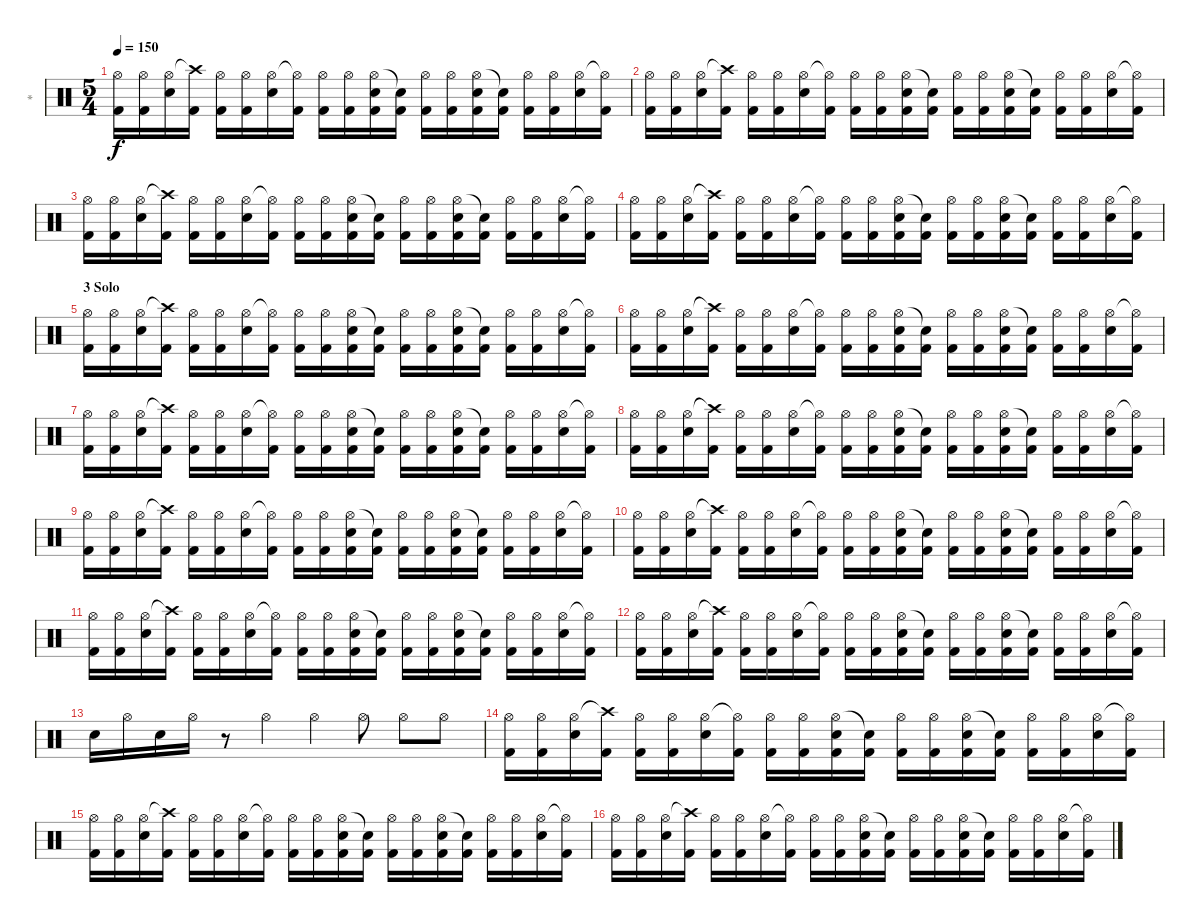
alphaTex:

\track ("*" "*") {instrument percussion}
\staff {score}
\articulation defaults
\ts (5 4)
\tempo 150
\clef neutral
\ks c
("Hi-Hat (open)" "Kick (hit) 2").16{dy f} ("Hi-Hat (open)" "Kick (hit) 2").16 ("Hi-Hat (open)" "Electric Snare (hit)").16 ("Crash high (hit)"{t} "Kick (hit) 2").16 ("Hi-Hat (open)" "Kick (hit) 2").16 ("Hi-Hat (open)" "Kick (hit) 2").16 ("Hi-Hat (open)" "Electric Snare (hit)").16 ("Hi-Hat (open)"{t} "Kick (hit) 2").16 ("Hi-Hat (open)" "Kick (hit) 2").16 ("Hi-Hat (open)" "Kick (hit) 2").16 ("Hi-Hat (open)" "Electric Snare (hit)" "Kick (hit) 2"{x}).16 ("Snare (hit)"{t} "Kick (hit) 2").16 ("Hi-Hat (open)" "Kick (hit) 2").16 ("Hi-Hat (open)" "Kick (hit) 2").16 ("Hi-Hat (open)" "Electric Snare (hit)" "Kick (hit) 2"{x}).16 ("Snare (hit)"{t} "Kick (hit) 2").16 ("Hi-Hat (open)" "Kick (hit) 2").16 ("Hi-Hat (open)" "Kick (hit) 2").16 ("Hi-Hat (open)" "Electric Snare (hit)").16 ("Hi-Hat (open)"{t} "Kick (hit) 2").16 |
("Hi-Hat (open)" "Kick (hit) 2").16 ("Hi-Hat (open)" "Kick (hit) 2").16 ("Hi-Hat (open)" "Electric Snare (hit)").16 ("Crash high (hit)"{t} "Kick (hit) 2").16 ("Hi-Hat (open)" "Kick (hit) 2").16 ("Hi-Hat (open)" "Kick (hit) 2").16 ("Hi-Hat (open)" "Electric Snare (hit)").16 ("Hi-Hat (open)"{t} "Kick (hit) 2").16 ("Hi-Hat (open)" "Kick (hit) 2").16 ("Hi-Hat (open)" "Kick (hit) 2").16 ("Hi-Hat (open)" "Electric Snare (hit)" "Kick (hit) 2"{x}).16 ("Snare (hit)"{t} "Kick (hit) 2").16 ("Hi-Hat (open)" "Kick (hit) 2").16 ("Hi-Hat (open)" "Kick (hit) 2").16 ("Hi-Hat (open)" "Electric Snare (hit)" "Kick (hit) 2"{x}).16 ("Snare (hit)"{t} "Kick (hit) 2").16 ("Hi-Hat (open)" "Kick (hit) 2").16 ("Hi-Hat (open)" "Kick (hit) 2").16 ("Hi-Hat (open)" "Electric Snare (hit)").16 ("Hi-Hat (open)"{t} "Kick (hit) 2").16 |
("Hi-Hat (open)" "Kick (hit) 2").16 ("Hi-Hat (open)" "Kick (hit) 2").16 ("Hi-Hat (open)" "Electric Snare (hit)").16 ("Crash high (hit)"{t} "Kick (hit) 2").16 ("Hi-Hat (open)" "Kick (hit) 2").16 ("Hi-Hat (open)" "Kick (hit) 2").16 ("Hi-Hat (open)" "Electric Snare (hit)").16 ("Hi-Hat (open)"{t} "Kick (hit) 2").16 ("Hi-Hat (open)" "Kick (hit) 2").16 ("Hi-Hat (open)" "Kick (hit) 2").16 ("Hi-Hat (open)" "Electric Snare (hit)" "Kick (hit) 2"{x}).16 ("Snare (hit)"{t} "Kick (hit) 2").16 ("Hi-Hat (open)" "Kick (hit) 2").16 ("Hi-Hat (open)" "Kick (hit) 2").16 ("Hi-Hat (open)" "Electric Snare (hit)" "Kick (hit) 2"{x}).16 ("Snare (hit)"{t} "Kick (hit) 2").16 ("Hi-Hat (open)" "Kick (hit) 2").16 ("Hi-Hat (open)" "Kick (hit) 2").16 ("Hi-Hat (open)" "Electric Snare (hit)").16 ("Hi-Hat (open)"{t} "Kick (hit) 2").16 |
("Hi-Hat (open)" "Kick (hit) 2").16 ("Hi-Hat (open)" "Kick (hit) 2").16 ("Hi-Hat (open)" "Electric Snare (hit)").16 ("Crash high (hit)"{t} "Kick (hit) 2").16 ("Hi-Hat (open)" "Kick (hit) 2").16 ("Hi-Hat (open)" "Kick (hit) 2").16 ("Hi-Hat (open)" "Electric Snare (hit)").16 ("Hi-Hat (open)"{t} "Kick (hit) 2").16 ("Hi-Hat (open)" "Kick (hit) 2").16 ("Hi-Hat (open)" "Kick (hit) 2").16 ("Hi-Hat (open)" "Electric Snare (hit)" "Kick (hit) 2"{x}).16 ("Snare (hit)"{t} "Kick (hit) 2").16 ("Hi-Hat (open)" "Kick (hit) 2").16 ("Hi-Hat (open)" "Kick (hit) 2").16 ("Hi-Hat (open)" "Electric Snare (hit)" "Kick (hit) 2"{x}).16 ("Snare (hit)"{t} "Kick (hit) 2").16 ("Hi-Hat (open)" "Kick (hit) 2").16 ("Hi-Hat (open)" "Kick (hit) 2").16 ("Hi-Hat (open)" "Electric Snare (hit)").16 ("Hi-Hat (open)"{t} "Kick (hit) 2").16 |
\section ("" "3 Solo")
("Hi-Hat (open)" "Kick (hit) 2").16 ("Hi-Hat (open)" "Kick (hit) 2").16 ("Hi-Hat (open)" "Electric Snare (hit)").16 ("Crash high (hit)"{t} "Kick (hit) 2").16 ("Hi-Hat (open)" "Kick (hit) 2").16 ("Hi-Hat (open)" "Kick (hit) 2").16 ("Hi-Hat (open)" "Electric Snare (hit)").16 ("Hi-Hat (open)"{t} "Kick (hit) 2").16 ("Hi-Hat (open)" "Kick (hit) 2").16 ("Hi-Hat (open)" "Kick (hit) 2").16 ("Hi-Hat (open)" "Electric Snare (hit)" "Kick (hit) 2"{x}).16 ("Snare (hit)"{t} "Kick (hit) 2").16 ("Hi-Hat (open)" "Kick (hit) 2").16 ("Hi-Hat (open)" "Kick (hit) 2").16 ("Hi-Hat (open)" "Electric Snare (hit)" "Kick (hit) 2"{x}).16 ("Snare (hit)"{t} "Kick (hit) 2").16 ("Hi-Hat (open)" "Kick (hit) 2").16 ("Hi-Hat (open)" "Kick (hit) 2").16 ("Hi-Hat (open)" "Electric Snare (hit)").16 ("Hi-Hat (open)"{t} "Kick (hit) 2").16 |
("Hi-Hat (open)" "Kick (hit) 2").16 ("Hi-Hat (open)" "Kick (hit) 2").16 ("Hi-Hat (open)" "Electric Snare (hit)").16 ("Crash high (hit)"{t} "Kick (hit) 2").16 ("Hi-Hat (open)" "Kick (hit) 2").16 ("Hi-Hat (open)" "Kick (hit) 2").16 ("Hi-Hat (open)" "Electric Snare (hit)").16 ("Hi-Hat (open)"{t} "Kick (hit) 2").16 ("Hi-Hat (open)" "Kick (hit) 2").16 ("Hi-Hat (open)" "Kick (hit) 2").16 ("Hi-Hat (open)" "Electric Snare (hit)" "Kick (hit) 2"{x}).16 ("Snare (hit)"{t} "Kick (hit) 2").16 ("Hi-Hat (open)" "Kick (hit) 2").16 ("Hi-Hat (open)" "Kick (hit) 2").16 ("Hi-Hat (open)" "Electric Snare (hit)" "Kick (hit) 2"{x}).16 ("Snare (hit)"{t} "Kick (hit) 2").16 ("Hi-Hat (open)" "Kick (hit) 2").16 ("Hi-Hat (open)" "Kick (hit) 2").16 ("Hi-Hat (open)" "Electric Snare (hit)").16 ("Hi-Hat (open)"{t} "Kick (hit) 2").16 |
("Hi-Hat (open)" "Kick (hit) 2").16 ("Hi-Hat (open)" "Kick (hit) 2").16 ("Hi-Hat (open)" "Electric Snare (hit)").16 ("Crash high (hit)"{t} "Kick (hit) 2").16 ("Hi-Hat (open)" "Kick (hit) 2").16 ("Hi-Hat (open)" "Kick (hit) 2").16 ("Hi-Hat (open)" "Electric Snare (hit)").16 ("Hi-Hat (open)"{t} "Kick (hit) 2").16 ("Hi-Hat (open)" "Kick (hit) 2").16 ("Hi-Hat (open)" "Kick (hit) 2").16 ("Hi-Hat (open)" "Electric Snare (hit)" "Kick (hit) 2"{x}).16 ("Snare (hit)"{t} "Kick (hit) 2").16 ("Hi-Hat (open)" "Kick (hit) 2").16 ("Hi-Hat (open)" "Kick (hit) 2").16 ("Hi-Hat (open)" "Electric Snare (hit)" "Kick (hit) 2"{x}).16 ("Snare (hit)"{t} "Kick (hit) 2").16 ("Hi-Hat (open)" "Kick (hit) 2").16 ("Hi-Hat (open)" "Kick (hit) 2").16 ("Hi-Hat (open)" "Electric Snare (hit)").16 ("Hi-Hat (open)"{t} "Kick (hit) 2").16 |
("Hi-Hat (open)" "Kick (hit) 2").16 ("Hi-Hat (open)" "Kick (hit) 2").16 ("Hi-Hat (open)" "Electric Snare (hit)").16 ("Crash high (hit)"{t} "Kick (hit) 2").16 ("Hi-Hat (open)" "Kick (hit) 2").16 ("Hi-Hat (open)" "Kick (hit) 2").16 ("Hi-Hat (open)" "Electric Snare (hit)").16 ("Hi-Hat (open)"{t} "Kick (hit) 2").16 ("Hi-Hat (open)" "Kick (hit) 2").16 ("Hi-Hat (open)" "Kick (hit) 2").16 ("Hi-Hat (open)" "Electric Snare (hit)" "Kick (hit) 2"{x}).16 ("Snare (hit)"{t} "Kick (hit) 2").16 ("Hi-Hat (open)" "Kick (hit) 2").16 ("Hi-Hat (open)" "Kick (hit) 2").16 ("Hi-Hat (open)" "Electric Snare (hit)" "Kick (hit) 2"{x}).16 ("Snare (hit)"{t} "Kick (hit) 2").16 ("Hi-Hat (open)" "Kick (hit) 2").16 ("Hi-Hat (open)" "Kick (hit) 2").16 ("Hi-Hat (open)" "Electric Snare (hit)").16 ("Hi-Hat (open)"{t} "Kick (hit) 2").16 |
("Hi-Hat (open)" "Kick (hit) 2").16 ("Hi-Hat (open)" "Kick (hit) 2").16 ("Hi-Hat (open)" "Electric Snare (hit)").16 ("Crash high (hit)"{t} "Kick (hit) 2").16 ("Hi-Hat (open)" "Kick (hit) 2").16 ("Hi-Hat (open)" "Kick (hit) 2").16 ("Hi-Hat (open)" "Electric Snare (hit)").16 ("Hi-Hat (open)"{t} "Kick (hit) 2").16 ("Hi-Hat (open)" "Kick (hit) 2").16 ("Hi-Hat (open)" "Kick (hit) 2").16 ("Hi-Hat (open)" "Electric Snare (hit)" "Kick (hit) 2"{x}).16 ("Snare (hit)"{t} "Kick (hit) 2").16 ("Hi-Hat (open)" "Kick (hit) 2").16 ("Hi-Hat (open)" "Kick (hit) 2").16 ("Hi-Hat (open)" "Electric Snare (hit)" "Kick (hit) 2"{x}).16 ("Snare (hit)"{t} "Kick (hit) 2").16 ("Hi-Hat (open)" "Kick (hit) 2").16 ("Hi-Hat (open)" "Kick (hit) 2").16 ("Hi-Hat (open)" "Electric Snare (hit)").16 ("Hi-Hat (open)"{t} "Kick (hit) 2").16 |
("Hi-Hat (open)" "Kick (hit) 2").16 ("Hi-Hat (open)" "Kick (hit) 2").16 ("Hi-Hat (open)" "Electric Snare (hit)").16 ("Crash high (hit)"{t} "Kick (hit) 2").16 ("Hi-Hat (open)" "Kick (hit) 2").16 ("Hi-Hat (open)" "Kick (hit) 2").16 ("Hi-Hat (open)" "Electric Snare (hit)").16 ("Hi-Hat (open)"{t} "Kick (hit) 2").16 ("Hi-Hat (open)" "Kick (hit) 2").16 ("Hi-Hat (open)" "Kick (hit) 2").16 ("Hi-Hat (open)" "Electric Snare (hit)" "Kick (hit) 2"{x}).16 ("Snare (hit)"{t} "Kick (hit) 2").16 ("Hi-Hat (open)" "Kick (hit) 2").16 ("Hi-Hat (open)" "Kick (hit) 2").16 ("Hi-Hat (open)" "Electric Snare (hit)" "Kick (hit) 2"{x}).16 ("Snare (hit)"{t} "Kick (hit) 2").16 ("Hi-Hat (open)" "Kick (hit) 2").16 ("Hi-Hat (open)" "Kick (hit) 2").16 ("Hi-Hat (open)" "Electric Snare (hit)").16 ("Hi-Hat (open)"{t} "Kick (hit) 2").16 |
("Hi-Hat (open)" "Kick (hit) 2").16 ("Hi-Hat (open)" "Kick (hit) 2").16 ("Hi-Hat (open)" "Electric Snare (hit)").16 ("Crash high (hit)"{t} "Kick (hit) 2").16 ("Hi-Hat (open)" "Kick (hit) 2").16 ("Hi-Hat (open)" "Kick (hit) 2").16 ("Hi-Hat (open)" "Electric Snare (hit)").16 ("Hi-Hat (open)"{t} "Kick (hit) 2").16 ("Hi-Hat (open)" "Kick (hit) 2").16 ("Hi-Hat (open)" "Kick (hit) 2").16 ("Hi-Hat (open)" "Electric Snare (hit)" "Kick (hit) 2"{x}).16 ("Snare (hit)"{t} "Kick (hit) 2").16 ("Hi-Hat (open)" "Kick (hit) 2").16 ("Hi-Hat (open)" "Kick (hit) 2").16 ("Hi-Hat (open)" "Electric Snare (hit)" "Kick (hit) 2"{x}).16 ("Snare (hit)"{t} "Kick (hit) 2").16 ("Hi-Hat (open)" "Kick (hit) 2").16 ("Hi-Hat (open)" "Kick (hit) 2").16 ("Hi-Hat (open)" "Electric Snare (hit)").16 ("Hi-Hat (open)"{t} "Kick (hit) 2").16 |
("Hi-Hat (open)" "Kick (hit) 2").16 ("Hi-Hat (open)" "Kick (hit) 2").16 ("Hi-Hat (open)" "Electric Snare (hit)").16 ("Crash high (hit)"{t} "Kick (hit) 2").16 ("Hi-Hat (open)" "Kick (hit) 2").16 ("Hi-Hat (open)" "Kick (hit) 2").16 ("Hi-Hat (open)" "Electric Snare (hit)").16 ("Hi-Hat (open)"{t} "Kick (hit) 2").16 ("Hi-Hat (open)" "Kick (hit) 2").16 ("Hi-Hat (open)" "Kick (hit) 2").16 ("Hi-Hat (open)" "Electric Snare (hit)" "Kick (hit) 2"{x}).16 ("Snare (hit)"{t} "Kick (hit) 2").16 ("Hi-Hat (open)" "Kick (hit) 2").16 ("Hi-Hat (open)" "Kick (hit) 2").16 ("Hi-Hat (open)" "Electric Snare (hit)" "Kick (hit) 2"{x}).16 ("Snare (hit)"{t} "Kick (hit) 2").16 ("Hi-Hat (open)" "Kick (hit) 2").16 ("Hi-Hat (open)" "Kick (hit) 2").16 ("Hi-Hat (open)" "Electric Snare (hit)").16 ("Hi-Hat (open)"{t} "Kick (hit) 2").16 |
"Electric Snare (hit)".16 "Hi-Hat (open)".16 "Electric Snare (hit)".16 "Hi-Hat (open)".16 r.8 "Hi-Hat (open)".4 "Hi-Hat (open)".4 "Hi-Hat (open)".8 "Hi-Hat (open)".8 "Hi-Hat (open)".8 |
("Hi-Hat (open)" "Kick (hit) 2").16 ("Hi-Hat (open)" "Kick (hit) 2").16 ("Hi-Hat (open)" "Electric Snare (hit)").16 ("Crash high (hit)"{t} "Kick (hit) 2").16 ("Hi-Hat (open)" "Kick (hit) 2").16 ("Hi-Hat (open)" "Kick (hit) 2").16 ("Hi-Hat (open)" "Electric Snare (hit)").16 ("Hi-Hat (open)"{t} "Kick (hit) 2").16 ("Hi-Hat (open)" "Kick (hit) 2").16 ("Hi-Hat (open)" "Kick (hit) 2").16 ("Hi-Hat (open)" "Electric Snare (hit)" "Kick (hit) 2"{x}).16 ("Snare (hit)"{t} "Kick (hit) 2").16 ("Hi-Hat (open)" "Kick (hit) 2").16 ("Hi-Hat (open)" "Kick (hit) 2").16 ("Hi-Hat (open)" "Electric Snare (hit)" "Kick (hit) 2"{x}).16 ("Snare (hit)"{t} "Kick (hit) 2").16 ("Hi-Hat (open)" "Kick (hit) 2").16 ("Hi-Hat (open)" "Kick (hit) 2").16 ("Hi-Hat (open)" "Electric Snare (hit)").16 ("Hi-Hat (open)"{t} "Kick (hit) 2").16 |
("Hi-Hat (open)" "Kick (hit) 2").16 ("Hi-Hat (open)" "Kick (hit) 2").16 ("Hi-Hat (open)" "Electric Snare (hit)").16 ("Crash high (hit)"{t} "Kick (hit) 2").16 ("Hi-Hat (open)" "Kick (hit) 2").16 ("Hi-Hat (open)" "Kick (hit) 2").16 ("Hi-Hat (open)" "Electric Snare (hit)").16 ("Hi-Hat (open)"{t} "Kick (hit) 2").16 ("Hi-Hat (open)" "Kick (hit) 2").16 ("Hi-Hat (open)" "Kick (hit) 2").16 ("Hi-Hat (open)" "Electric Snare (hit)" "Kick (hit) 2"{x}).16 ("Snare (hit)"{t} "Kick (hit) 2").16 ("Hi-Hat (open)" "Kick (hit) 2").16 ("Hi-Hat (open)" "Kick (hit) 2").16 ("Hi-Hat (open)" "Electric Snare (hit)" "Kick (hit) 2"{x}).16 ("Snare (hit)"{t} "Kick (hit) 2").16 ("Hi-Hat (open)" "Kick (hit) 2").16 ("Hi-Hat (open)" "Kick (hit) 2").16 ("Hi-Hat (open)" "Electric Snare (hit)").16 ("Hi-Hat (open)"{t} "Kick (hit) 2").16 |
("Hi-Hat (open)" "Kick (hit) 2").16 ("Hi-Hat (open)" "Kick (hit) 2").16 ("Hi-Hat (open)" "Electric Snare (hit)").16 ("Crash high (hit)"{t} "Kick (hit) 2").16 ("Hi-Hat (open)" "Kick (hit) 2").16 ("Hi-Hat (open)" "Kick (hit) 2").16 ("Hi-Hat (open)" "Electric Snare (hit)").16 ("Hi-Hat (open)"{t} "Kick (hit) 2").16 ("Hi-Hat (open)" "Kick (hit) 2").16 ("Hi-Hat (open)" "Kick (hit) 2").16 ("Hi-Hat (open)" "Electric Snare (hit)" "Kick (hit) 2"{x}).16 ("Snare (hit)"{t} "Kick (hit) 2").16 ("Hi-Hat (open)" "Kick (hit) 2").16 ("Hi-Hat (open)" "Kick (hit) 2").16 ("Hi-Hat (open)" "Electric Snare (hit)" "Kick (hit) 2"{x}).16 ("Snare (hit)"{t} "Kick (hit) 2").16 ("Hi-Hat (open)" "Kick (hit) 2").16 ("Hi-Hat (open)" "Kick (hit) 2").16 ("Hi-Hat (open)" "Electric Snare (hit)").16 ("Hi-Hat (open)"{t} "Kick (hit) 2").16
